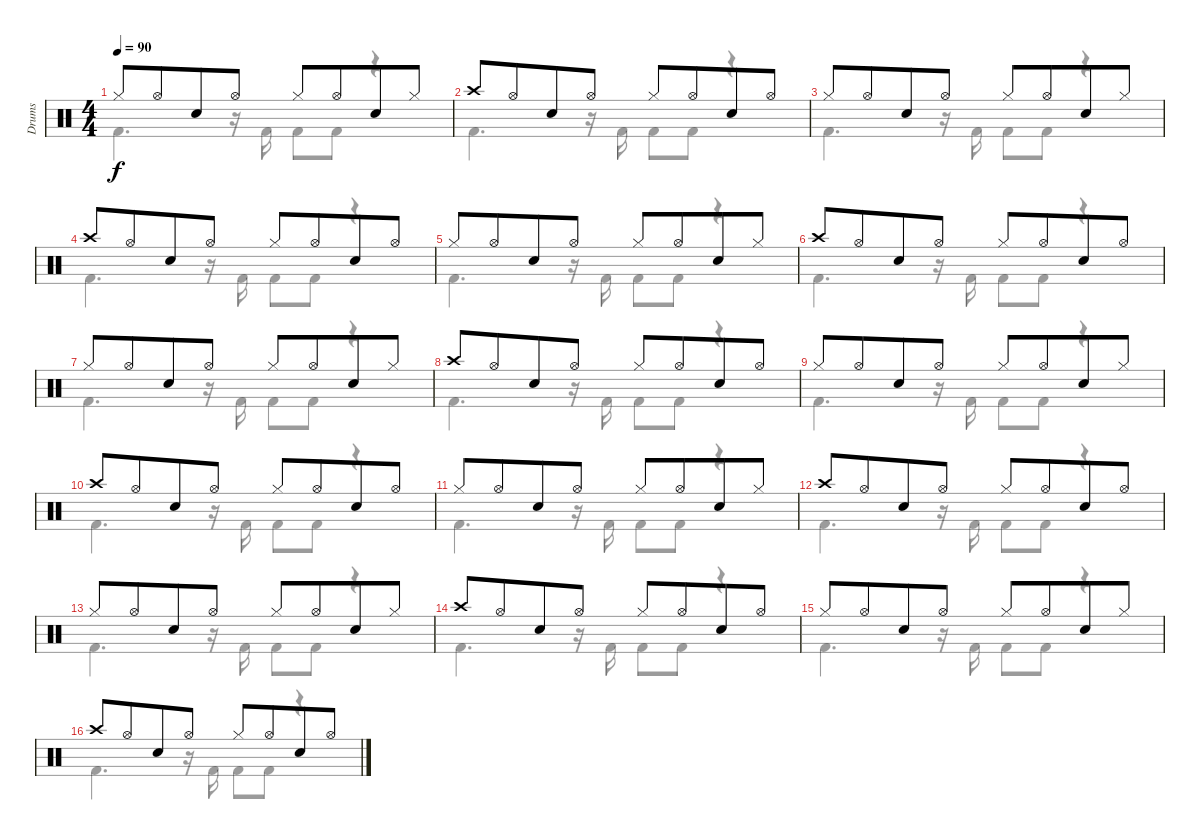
\track ("Drums" "Drums") {instrument percussion}
\staff {score}
\articulation defaults
\voice
\ts (4 4)
\tempo 90
\clef neutral
\ks c "Hi-Hat (closed)".8{dy f} "Hi-Hat (open)".8{beam merge} "Snare (hit) 2".8 "Hi-Hat (open)".8 "Hi-Hat (closed)".8 "Hi-Hat (open)".8{beam merge} "Snare (hit) 2".8 "Hi-Hat (closed)".8
|
"Crash high (hit)".8 "Hi-Hat (open)".8{beam merge} "Snare (hit) 2".8 "Hi-Hat (open)".8 "Hi-Hat (closed)".8 "Hi-Hat (open)".8{beam merge} "Snare (hit) 2".8 "Hi-Hat (open)".8 |
"Hi-Hat (closed)".8 "Hi-Hat (open)".8{beam merge} "Snare (hit) 2".8 "Hi-Hat (open)".8 "Hi-Hat (closed)".8 "Hi-Hat (open)".8{beam merge} "Snare (hit) 2".8 "Hi-Hat (closed)".8 |
"Crash high (hit)".8 "Hi-Hat (open)".8{beam merge} "Snare (hit) 2".8 "Hi-Hat (open)".8 "Hi-Hat (closed)".8 "Hi-Hat (open)".8{beam merge} "Snare (hit) 2".8 "Hi-Hat (open)".8 |
"Hi-Hat (closed)".8 "Hi-Hat (open)".8{beam merge} "Snare (hit) 2".8 "Hi-Hat (open)".8 "Hi-Hat (closed)".8 "Hi-Hat (open)".8{beam merge} "Snare (hit) 2".8 "Hi-Hat (closed)".8 |
"Crash high (hit)".8 "Hi-Hat (open)".8{beam merge} "Snare (hit) 2".8 "Hi-Hat (open)".8 "Hi-Hat (closed)".8 "Hi-Hat (open)".8{beam merge} "Snare (hit) 2".8 "Hi-Hat (open)".8 |
"Hi-Hat (closed)".8 "Hi-Hat (open)".8{beam merge} "Snare (hit) 2".8 "Hi-Hat (open)".8 "Hi-Hat (closed)".8 "Hi-Hat (open)".8{beam merge} "Snare (hit) 2".8 "Hi-Hat (closed)".8 |
"Crash high (hit)".8 "Hi-Hat (open)".8{beam merge} "Snare (hit) 2".8 "Hi-Hat (open)".8 "Hi-Hat (closed)".8 "Hi-Hat (open)".8{beam merge} "Snare (hit) 2".8 "Hi-Hat (open)".8 |
"Hi-Hat (closed)".8 "Hi-Hat (open)".8{beam merge} "Snare (hit) 2".8 "Hi-Hat (open)".8 "Hi-Hat (closed)".8 "Hi-Hat (open)".8{beam merge} "Snare (hit) 2".8 "Hi-Hat (closed)".8 |
"Crash high (hit)".8 "Hi-Hat (open)".8{beam merge} "Snare (hit) 2".8 "Hi-Hat (open)".8 "Hi-Hat (closed)".8 "Hi-Hat (open)".8{beam merge} "Snare (hit) 2".8 "Hi-Hat (open)".8 |
"Hi-Hat (closed)".8 "Hi-Hat (open)".8{beam merge} "Snare (hit) 2".8 "Hi-Hat (open)".8 "Hi-Hat (closed)".8 "Hi-Hat (open)".8{beam merge} "Snare (hit) 2".8 "Hi-Hat (closed)".8 |
"Crash high (hit)".8 "Hi-Hat (open)".8{beam merge} "Snare (hit) 2".8 "Hi-Hat (open)".8 "Hi-Hat (closed)".8 "Hi-Hat (open)".8{beam merge} "Snare (hit) 2".8 "Hi-Hat (open)".8 |
"Hi-Hat (closed)".8 "Hi-Hat (open)".8{beam merge} "Snare (hit) 2".8 "Hi-Hat (open)".8 "Hi-Hat (closed)".8 "Hi-Hat (open)".8{beam merge} "Snare (hit) 2".8 "Hi-Hat (closed)".8 |
"Crash high (hit)".8 "Hi-Hat (open)".8{beam merge} "Snare (hit) 2".8 "Hi-Hat (open)".8 "Hi-Hat (closed)".8 "Hi-Hat (open)".8{beam merge} "Snare (hit) 2".8 "Hi-Hat (open)".8 |
"Hi-Hat (closed)".8 "Hi-Hat (open)".8{beam merge} "Snare (hit) 2".8 "Hi-Hat (open)".8 "Hi-Hat (closed)".8 "Hi-Hat (open)".8{beam merge} "Snare (hit) 2".8 "Hi-Hat (closed)".8 |
"Crash high (hit)".8 "Hi-Hat (open)".8{beam merge} "Snare (hit) 2".8 "Hi-Hat (open)".8 "Hi-Hat (closed)".8 "Hi-Hat (open)".8{beam merge} "Snare (hit) 2".8 "Hi-Hat (open)".8
\voice
\clef neutral
\ottava regular
\simile none
\ks c "Kick (hit) 2".4{d dy f}
r.16 "Kick (hit) 2".16 "Kick (hit) 2".8 "Kick (hit) 2".8 r.4 |
"Kick (hit) 2".4{d} r.16 "Kick (hit) 2".16 "Kick (hit) 2".8 "Kick (hit) 2".8 r.4 |
"Kick (hit) 2".4{d} r.16 "Kick (hit) 2".16 "Kick (hit) 2".8 "Kick (hit) 2".8 r.4 |
"Kick (hit) 2".4{d} r.16 "Kick (hit) 2".16 "Kick (hit) 2".8 "Kick (hit) 2".8 r.4 |
"Kick (hit) 2".4{d} r.16 "Kick (hit) 2".16 "Kick (hit) 2".8 "Kick (hit) 2".8 r.4 |
"Kick (hit) 2".4{d} r.16 "Kick (hit) 2".16 "Kick (hit) 2".8 "Kick (hit) 2".8 r.4 |
"Kick (hit) 2".4{d} r.16 "Kick (hit) 2".16 "Kick (hit) 2".8 "Kick (hit) 2".8 r.4 |
"Kick (hit) 2".4{d} r.16 "Kick (hit) 2".16 "Kick (hit) 2".8 "Kick (hit) 2".8 r.4 |
"Kick (hit) 2".4{d} r.16 "Kick (hit) 2".16 "Kick (hit) 2".8 "Kick (hit) 2".8 r.4 |
"Kick (hit) 2".4{d} r.16 "Kick (hit) 2".16 "Kick (hit) 2".8 "Kick (hit) 2".8 r.4 |
"Kick (hit) 2".4{d} r.16 "Kick (hit) 2".16 "Kick (hit) 2".8 "Kick (hit) 2".8 r.4 |
"Kick (hit) 2".4{d} r.16 "Kick (hit) 2".16 "Kick (hit) 2".8 "Kick (hit) 2".8 r.4 |
"Kick (hit) 2".4{d} r.16 "Kick (hit) 2".16 "Kick (hit) 2".8 "Kick (hit) 2".8 r.4 |
"Kick (hit) 2".4{d} r.16 "Kick (hit) 2".16 "Kick (hit) 2".8 "Kick (hit) 2".8 r.4 |
"Kick (hit) 2".4{d} r.16 "Kick (hit) 2".16 "Kick (hit) 2".8 "Kick (hit) 2".8 r.4 |
"Kick (hit) 2".4{d} r.16 "Kick (hit) 2".16 "Kick (hit) 2".8 "Kick (hit) 2".8 r.4
